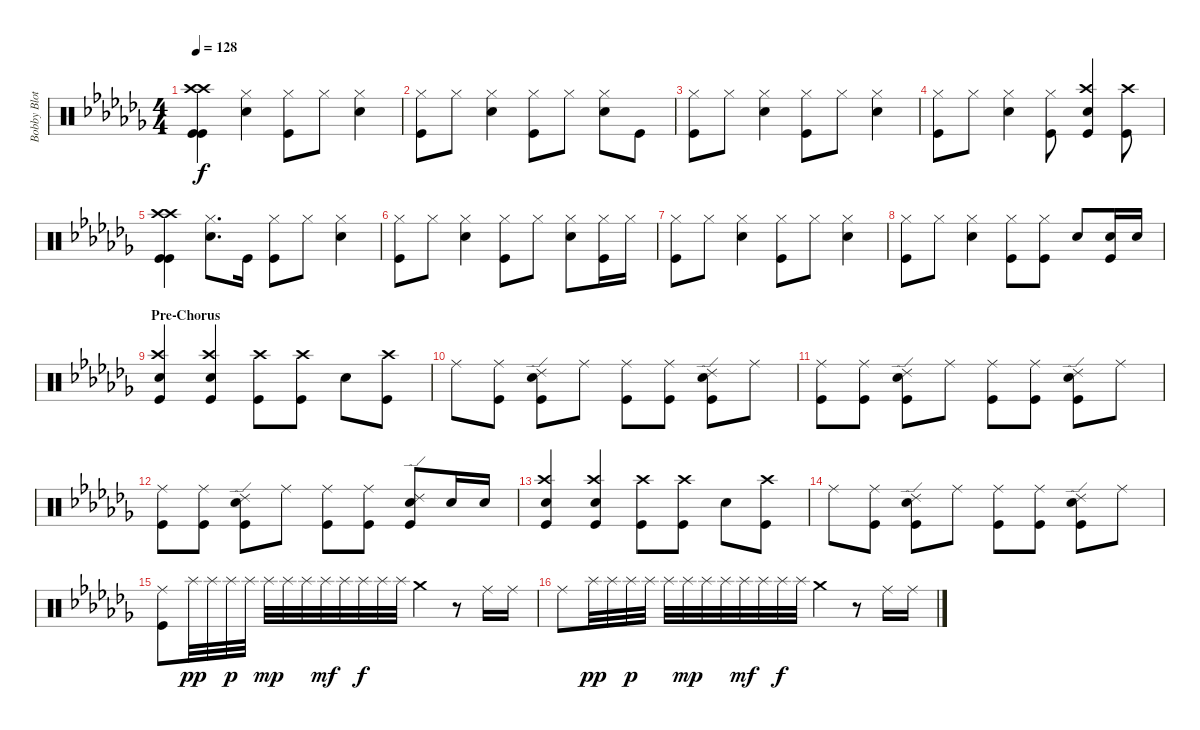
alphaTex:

\track ("Bobby Blotzer" "Bobby Blot") {instrument percussion}
\staff {score}
\articulation defaults
\ts (4 4)
\tempo 128
\clef neutral
\ks cb
("Kick (hit)" "Kick (hit)" "Crash high (hit)" "Crash high (hit)").4{dy f} ("Hi-Hat (closed)" "Snare (hit) 2").4 ("Kick (hit)" "Hi-Hat (closed)").8 "Hi-Hat (closed)".8 ("Snare (hit) 2" "Hi-Hat (closed)").4 |
("Kick (hit)" "Hi-Hat (closed)").8 "Hi-Hat (closed)".8 ("Snare (hit) 2" "Hi-Hat (closed)").4 ("Kick (hit)" "Hi-Hat (closed)").8 "Hi-Hat (closed)".8 ("Snare (hit) 2" "Hi-Hat (closed)").8 "Kick (hit)".8 |
("Kick (hit)" "Hi-Hat (closed)").8 "Hi-Hat (closed)".8 ("Hi-Hat (closed)" "Snare (hit) 2").4 ("Hi-Hat (closed)" "Kick (hit)").8 "Hi-Hat (closed)".8 ("Snare (hit) 2" "Hi-Hat (closed)").4 |
("Hi-Hat (closed)" "Kick (hit)").8 "Hi-Hat (closed)".8 ("Hi-Hat (closed)" "Snare (hit) 2").4 ("Kick (hit)" "Hi-Hat (closed)").8 ("Kick (hit)" "Snare (hit) 2" "Crash high (hit)").4 ("Crash high (hit)" "Kick (hit)").8 |
("Kick (hit)" "Crash high (hit)" "Crash high (hit)" "Kick (hit)").4 ("Snare (hit) 2" "Hi-Hat (closed)").8{d} "Kick (hit)".16 ("Hi-Hat (closed)" "Kick (hit)").8 "Hi-Hat (closed)".8 ("Snare (hit) 2" "Hi-Hat (closed)").4 |
("Kick (hit)" "Hi-Hat (closed)").8 "Hi-Hat (closed)".8 ("Snare (hit) 2" "Hi-Hat (closed)").4 ("Kick (hit)" "Hi-Hat (closed)").8 "Hi-Hat (closed)".8 ("Snare (hit) 2" "Hi-Hat (closed)").8 ("Hi-Hat (closed)" "Kick (hit)").16 "Hi-Hat (closed)".16 |
("Hi-Hat (closed)" "Kick (hit)").8 "Hi-Hat (closed)".8 ("Hi-Hat (closed)" "Snare (hit) 2").4 ("Kick (hit)" "Hi-Hat (closed)").8 "Hi-Hat (closed)".8 ("Hi-Hat (closed)" "Snare (hit) 2").4 |
("Hi-Hat (closed)" "Kick (hit)").8 "Hi-Hat (closed)".8 ("Hi-Hat (closed)" "Snare (hit) 2").4 ("Hi-Hat (closed)" "Kick (hit)").8 ("Hi-Hat (closed)" "Kick (hit)").8 "Snare (hit) 2".8 ("Kick (hit)" "Snare (hit) 2").16 "Snare (hit) 2".16 |
\section ("" "Pre-Chorus")
("Kick (hit)" "Snare (hit) 2" "Crash high (hit)").4 ("Kick (hit)" "Crash high (hit)" "Snare (hit) 2").4 ("Crash high (hit)" "Kick (hit)").8 ("Kick (hit)" "Crash high (hit)").8 "Snare (hit) 2".8 ("Kick (hit)" "Crash high (hit)").8 |
"Ride (middle)".8 ("Kick (hit)" "Ride (middle)").8 ("Snare (hit) 2" "Kick (hit)" "Ride (edge) 2").8 "Ride (middle)".8 ("Kick (hit)" "Ride (middle)").8 ("Kick (hit)" "Ride (middle)").8 ("Kick (hit)" "Ride (edge) 2" "Snare (hit) 2").8 "Ride (middle)".8 |
("Ride (middle)" "Kick (hit)").8 ("Kick (hit)" "Ride (middle)").8 ("Ride (edge) 2" "Snare (hit) 2" "Kick (hit)").8 "Ride (middle)".8 ("Kick (hit)" "Ride (middle)").8 ("Ride (middle)" "Kick (hit)").8 ("Snare (hit) 2" "Kick (hit)" "Ride (edge) 2").8 "Ride (middle)".8 |
("Ride (middle)" "Kick (hit)").8 ("Ride (middle)" "Kick (hit)").8 ("Ride (edge) 2" "Kick (hit)" "Snare (hit) 2").8 "Ride (middle)".8 ("Kick (hit)" "Ride (middle)").8 ("Kick (hit)" "Ride (middle)").8 ("Ride (edge) 2" "Snare (hit) 2" "Kick (hit)").8 "Snare (hit) 2".16 "Snare (hit) 2".16 |
("Kick (hit)" "Crash high (hit)" "Snare (hit) 2").4 ("Snare (hit) 2" "Kick (hit)" "Crash high (hit)").4 ("Kick (hit)" "Crash high (hit)").8 ("Crash high (hit)" "Kick (hit)").8 "Snare (hit) 2".8 ("Kick (hit)" "Crash high (hit)").8 |
"Ride (middle)".8 ("Ride (middle)" "Kick (hit)").8 ("Kick (hit)" "Snare (hit) 2" "Ride (edge) 2").8 "Ride (middle)".8 ("Ride (middle)" "Kick (hit)").8 ("Ride (middle)" "Kick (hit)").8 ("Kick (hit)" "Ride (edge) 2" "Snare (hit) 2").8 "Ride (middle)".8 |
("Ride (middle)" "Kick (hit)").8 "Splash (hit)".32{dy pp} "Splash (hit)".32 "Splash (hit)".32{dy p} "Splash (hit)".32 "Splash (hit)".32{dy mp} "Splash (hit)".32 "Splash (hit)".32 "Splash (hit)".32{dy mf} "Splash (hit)".32 "Splash (hit)".32{dy f} "Splash (hit)".32 "Splash (hit)".32 "Crash medium (hit)".4 r.8 "Ride (middle)".16 "Ride (middle)".16 |
"Ride (middle)".8 "Splash (hit)".32{dy pp} "Splash (hit)".32 "Splash (hit)".32{dy p} "Splash (hit)".32 "Splash (hit)".32 "Splash (hit)".32{dy mp} "Splash (hit)".32 "Splash (hit)".32 "Splash (hit)".32{dy mf} "Splash (hit)".32 "Splash (hit)".32{dy f} "Splash (hit)".32 "Crash medium (hit)".4 r.8 "Ride (middle)".16 "Ride (middle)".16
